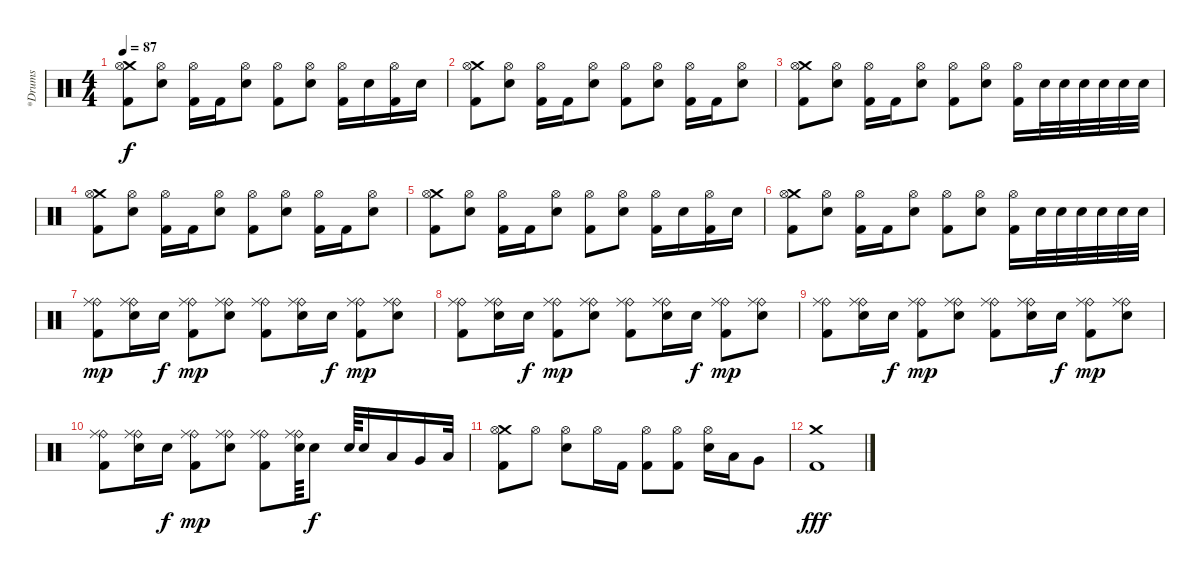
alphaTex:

\track ("*Drums" "*Drums") {instrument percussion}
\staff {score}
\articulation defaults
\ts (4 4)
\tempo 87
\clef neutral
\ks c
("Crash medium (hit)" "Hi-Hat (open)" "Kick (hit) 2").8{dy f} ("Hi-Hat (open)" "Electric Snare (hit)").8 ("Hi-Hat (open)" "Kick (hit) 2").16 "Kick (hit) 2".16 ("Hi-Hat (open)" "Electric Snare (hit)").8 ("Hi-Hat (open)" "Kick (hit) 2").8 ("Hi-Hat (open)" "Electric Snare (hit)").8 ("Hi-Hat (open)" "Kick (hit) 2").16 "Electric Snare (hit)".16 ("Hi-Hat (open)" "Kick (hit) 2").16 "Electric Snare (hit)".16 |
("Crash medium (hit)" "Hi-Hat (open)" "Kick (hit) 2").8 ("Hi-Hat (open)" "Electric Snare (hit)").8 ("Hi-Hat (open)" "Kick (hit) 2").16 "Kick (hit) 2".16 ("Hi-Hat (open)" "Electric Snare (hit)").8 ("Hi-Hat (open)" "Kick (hit) 2").8 ("Hi-Hat (open)" "Electric Snare (hit)").8 ("Hi-Hat (open)" "Kick (hit) 2").16 "Kick (hit) 2".16 ("Hi-Hat (open)" "Electric Snare (hit)").8 |
("Crash medium (hit)" "Hi-Hat (open)" "Kick (hit) 2").8 ("Hi-Hat (open)" "Electric Snare (hit)").8 ("Hi-Hat (open)" "Kick (hit) 2").16 "Kick (hit) 2".16 ("Hi-Hat (open)" "Electric Snare (hit)").8 ("Hi-Hat (open)" "Kick (hit) 2").8 ("Hi-Hat (open)" "Electric Snare (hit)").8 ("Hi-Hat (open)" "Kick (hit) 2").16 "Electric Snare (hit)".32 "Electric Snare (hit)".32 "Electric Snare (hit)".32 "Electric Snare (hit)".32 "Electric Snare (hit)".32 "Electric Snare (hit)".32 |
("Crash medium (hit)" "Hi-Hat (open)" "Kick (hit) 2").8 ("Hi-Hat (open)" "Electric Snare (hit)").8 ("Hi-Hat (open)" "Kick (hit) 2").16 "Kick (hit) 2".16 ("Hi-Hat (open)" "Electric Snare (hit)").8 ("Hi-Hat (open)" "Kick (hit) 2").8 ("Hi-Hat (open)" "Electric Snare (hit)").8 ("Hi-Hat (open)" "Kick (hit) 2").16 "Kick (hit) 2".16 ("Hi-Hat (open)" "Electric Snare (hit)").8 |
("Crash medium (hit)" "Hi-Hat (open)" "Kick (hit) 2").8 ("Hi-Hat (open)" "Electric Snare (hit)").8 ("Hi-Hat (open)" "Kick (hit) 2").16 "Kick (hit) 2".16 ("Hi-Hat (open)" "Electric Snare (hit)").8 ("Hi-Hat (open)" "Kick (hit) 2").8 ("Hi-Hat (open)" "Electric Snare (hit)").8 ("Hi-Hat (open)" "Kick (hit) 2").16 "Electric Snare (hit)".16 ("Hi-Hat (open)" "Kick (hit) 2").16 "Electric Snare (hit)".16 |
("Crash medium (hit)" "Hi-Hat (open)" "Kick (hit) 2").8 ("Hi-Hat (open)" "Electric Snare (hit)").8 ("Hi-Hat (open)" "Kick (hit) 2").16 "Kick (hit) 2".16 ("Hi-Hat (open)" "Electric Snare (hit)").8 ("Hi-Hat (open)" "Kick (hit) 2").8 ("Hi-Hat (open)" "Electric Snare (hit)").8 ("Hi-Hat (open)" "Kick (hit) 2").16 "Electric Snare (hit)".32 "Electric Snare (hit)".32 "Electric Snare (hit)".32 "Electric Snare (hit)".32 "Electric Snare (hit)".32 "Electric Snare (hit)".32 |
("Ride (bell)" "Kick (hit) 2" "Ride (middle)").8{dy mp} ("Ride (bell)" "Electric Snare (hit)" "Ride (middle)").16 "Electric Snare (hit)".16{dy f} ("Ride (bell)" "Kick (hit) 2" "Ride (middle)").8{dy mp} ("Ride (bell)" "Electric Snare (hit)" "Ride (middle)").8 ("Ride (bell)" "Kick (hit) 2" "Ride (middle)").8 ("Ride (bell)" "Electric Snare (hit)" "Ride (middle)").16 "Electric Snare (hit)".16{dy f} ("Ride (bell)" "Kick (hit) 2" "Ride (middle)").8{dy mp} ("Ride (bell)" "Electric Snare (hit)" "Ride (middle)").8 |
("Ride (bell)" "Kick (hit) 2" "Ride (middle)").8 ("Ride (bell)" "Electric Snare (hit)" "Ride (middle)").16 "Electric Snare (hit)".16{dy f} ("Ride (bell)" "Kick (hit) 2" "Ride (middle)").8{dy mp} ("Ride (bell)" "Electric Snare (hit)" "Ride (middle)").8 ("Ride (bell)" "Kick (hit) 2" "Ride (middle)").8 ("Ride (bell)" "Electric Snare (hit)" "Ride (middle)").16 "Electric Snare (hit)".16{dy f} ("Ride (bell)" "Kick (hit) 2" "Ride (middle)").8{dy mp} ("Ride (bell)" "Electric Snare (hit)" "Ride (middle)").8 |
("Ride (bell)" "Kick (hit) 2" "Ride (middle)").8 ("Ride (bell)" "Electric Snare (hit)" "Ride (middle)").16 "Electric Snare (hit)".16{dy f} ("Ride (bell)" "Kick (hit) 2" "Ride (middle)").8{dy mp} ("Ride (bell)" "Electric Snare (hit)" "Ride (middle)").8 ("Ride (bell)" "Kick (hit) 2" "Ride (middle)").8 ("Ride (bell)" "Electric Snare (hit)" "Ride (middle)").16 "Electric Snare (hit)".16{dy f} ("Ride (bell)" "Kick (hit) 2" "Ride (middle)").8{dy mp} ("Ride (bell)" "Electric Snare (hit)" "Ride (middle)").8 |
("Ride (bell)" "Kick (hit) 2" "Ride (middle)").8 ("Ride (bell)" "Electric Snare (hit)" "Ride (middle)").16 "Electric Snare (hit)".16{dy f} ("Ride (bell)" "Kick (hit) 2" "Ride (middle)").8{dy mp} ("Ride (bell)" "Electric Snare (hit)" "Ride (middle)").8 ("Ride (bell)" "Kick (hit) 2" "Ride (middle)").8 ("Ride (bell)" "Electric Snare (hit)" "Ride (middle)").64 "Electric Snare (hit)".8{dy f} "Electric Snare (hit)".64 "Electric Snare (hit)".16 "Low Tom (hit)".16 "Very Low Tom (hit)".16 "Low Floor Tom (hit)".32 |
("Crash medium (hit)" "Hi-Hat (open)" "Kick (hit) 2").8 "Hi-Hat (open)".8 ("Hi-Hat (open)" "Electric Snare (hit)").8 "Hi-Hat (open)".16 "Kick (hit) 2".16 ("Hi-Hat (open)" "Kick (hit) 2").8 ("Hi-Hat (open)" "Kick (hit) 2").8 ("Hi-Hat (open)" "Electric Snare (hit)").16 "Low Tom (hit)".16 "Very Low Tom (hit)".8 |
("Crash medium (hit)" "Kick (hit) 2").1{dy fff}
